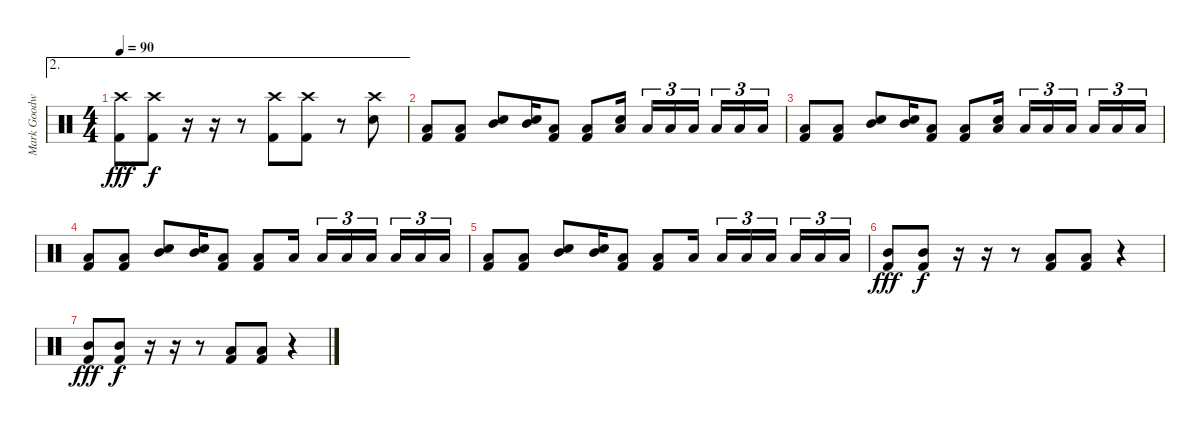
\track ("Mark Goodwin" "Mark Goodw") {instrument percussion}
\staff {score}
\articulation defaults
\ae 2
\ts (4 4)
\tempo 90
\clef neutral
\ks c
("Crash high (hit)" "Kick (hit) 2").8{dy fff} ("Crash high (hit)" "Kick (hit) 2").8{dy f} r.16 r.16 r.8 ("Crash high (hit)" "Kick (hit) 2").8 ("Crash high (hit)" "Kick (hit) 2").8 r.8 ("Crash high (hit)" "Electric Snare (hit)").8 |
("Low Floor Tom (hit)" "Kick (hit) 2").8 ("Low Floor Tom (hit)" "Kick (hit) 2").8 ("Mid Tom (hit)" "Electric Snare (hit)").8 ("Mid Tom (hit)" "Electric Snare (hit)").16 ("Low Floor Tom (hit)" "Kick (hit) 2").8 ("Low Floor Tom (hit)" "Kick (hit) 2").8 ("Low Tom (hit)" "Snare (hit) 2").16 "Low Tom (hit)".16{tu (3 2)} "Low Tom (hit)".16{tu (3 2)} "Low Tom (hit)".16{tu (3 2) beam splitsecondary} "Low Tom (hit)".16{tu (3 2)} "Low Tom (hit)".16{tu (3 2)} "Low Tom (hit)".16{tu (3 2)} |
("Low Floor Tom (hit)" "Kick (hit) 2").8 ("Low Floor Tom (hit)" "Kick (hit) 2").8 ("Mid Tom (hit)" "Electric Snare (hit)").8 ("Mid Tom (hit)" "Electric Snare (hit)").16 ("Low Floor Tom (hit)" "Kick (hit) 2").8 ("Low Floor Tom (hit)" "Kick (hit) 2").8 ("Low Tom (hit)" "Electric Snare (hit)").16 "Low Tom (hit)".16{tu (3 2)} "Low Tom (hit)".16{tu (3 2)} "Low Tom (hit)".16{tu (3 2) beam splitsecondary} "Low Tom (hit)".16{tu (3 2)} "Low Tom (hit)".16{tu (3 2)} "Low Tom (hit)".16{tu (3 2)} |
("Low Floor Tom (hit)" "Kick (hit) 2").8 ("Low Floor Tom (hit)" "Kick (hit) 2").8 ("Mid Tom (hit)" "Electric Snare (hit)").8 ("Mid Tom (hit)" "Electric Snare (hit)").16 ("Low Floor Tom (hit)" "Kick (hit) 2").8 ("Low Floor Tom (hit)" "Kick (hit) 2").8 "Low Tom (hit)".16 "Low Tom (hit)".16{tu (3 2)} "Low Tom (hit)".16{tu (3 2)} "Low Tom (hit)".16{tu (3 2) beam splitsecondary} "Low Tom (hit)".16{tu (3 2)} "Low Tom (hit)".16{tu (3 2)} "Low Tom (hit)".16{tu (3 2)} |
("Low Floor Tom (hit)" "Kick (hit) 2").8 ("Low Floor Tom (hit)" "Kick (hit) 2").8 ("Mid Tom (hit)" "Electric Snare (hit)").8 ("Mid Tom (hit)" "Electric Snare (hit)").16 ("Low Floor Tom (hit)" "Kick (hit) 2").8 ("Low Floor Tom (hit)" "Kick (hit) 2").8 "Low Tom (hit)".16 "Low Tom (hit)".16{tu (3 2)} "Low Tom (hit)".16{tu (3 2)} "Low Tom (hit)".16{tu (3 2) beam splitsecondary} "Low Tom (hit)".16{tu (3 2)} "Low Tom (hit)".16{tu (3 2)} "Low Tom (hit)".16{tu (3 2)} |
("Mid Tom (hit)" "Kick (hit) 2").8{dy fff} ("Mid Tom (hit)" "Kick (hit) 2").8{dy f} r.16 r.16 r.8 ("Low Tom (hit)" "Kick (hit) 2").8 ("Low Tom (hit)" "Kick (hit) 2").8 r.4 |
("Mid Tom (hit)" "Kick (hit) 2").8{dy fff} ("Mid Tom (hit)" "Kick (hit) 2").8{dy f} r.16 r.16 r.8 ("Low Tom (hit)" "Kick (hit) 2").8 ("Low Tom (hit)" "Kick (hit) 2").8 r.4
